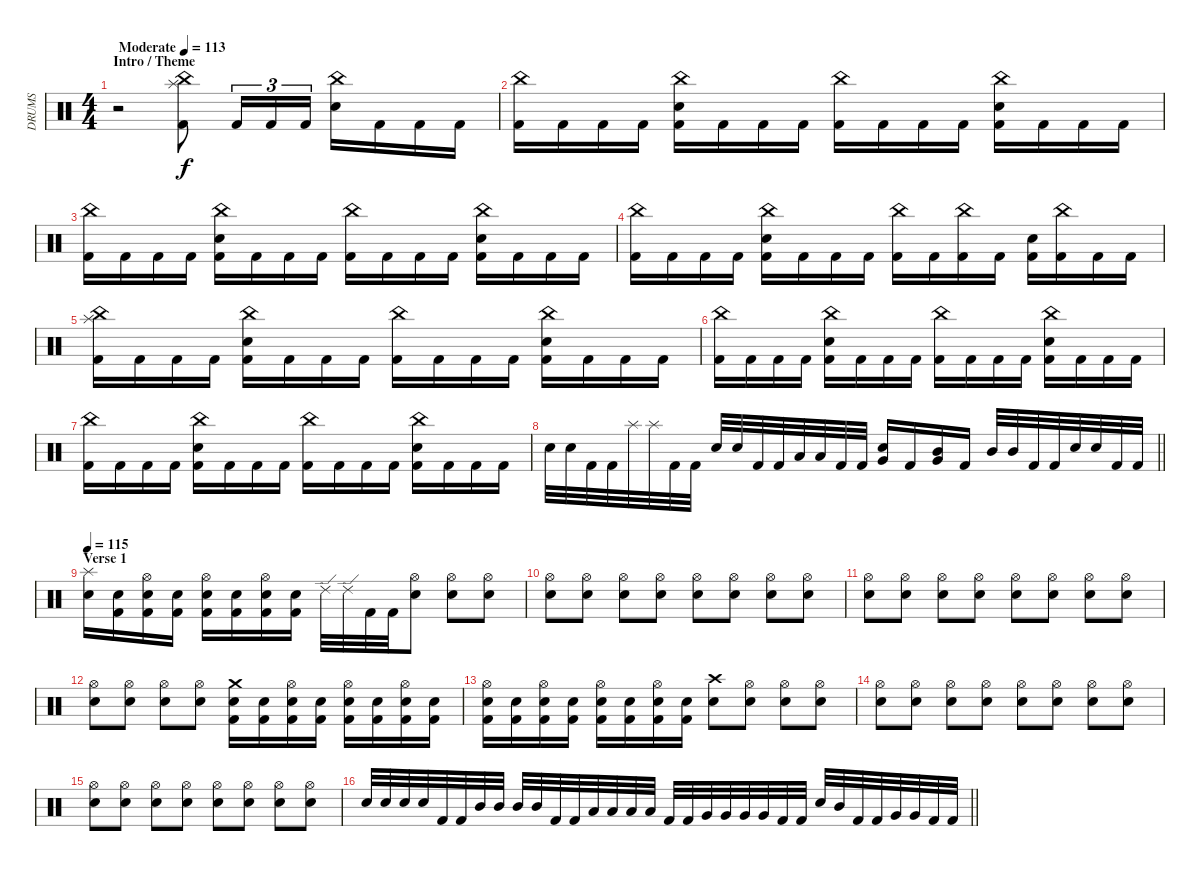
\track ("DRUMS" "DRUMS") {instrument percussion}
\staff {score}
\articulation defaults
\ts (4 4)
\section ("" "Intro / Theme")
\tempo (113 "Moderate")
\clef neutral
\ks c
r.2{dy f} ("China (hit)" "Splash (hit)" "Kick (hit) 2").8 "Kick (hit) 2".16{tu (3 2)} "Kick (hit) 2".16{tu (3 2)} "Kick (hit) 2".16{tu (3 2)} ("China (hit)" "Electric Snare (hit)").16 "Kick (hit) 2".16 "Kick (hit) 2".16 "Kick (hit) 2".16 |
("China (hit)" "Kick (hit) 2").16 "Kick (hit) 2".16 "Kick (hit) 2".16 "Kick (hit) 2".16 ("China (hit)" "Electric Snare (hit)" "Kick (hit) 2").16 "Kick (hit) 2".16 "Kick (hit) 2".16 "Kick (hit) 2".16 ("China (hit)" "Kick (hit) 2").16 "Kick (hit) 2".16 "Kick (hit) 2".16 "Kick (hit) 2".16 ("China (hit)" "Electric Snare (hit)" "Kick (hit) 2").16 "Kick (hit) 2".16 "Kick (hit) 2".16 "Kick (hit) 2".16 |
("China (hit)" "Kick (hit) 2").16 "Kick (hit) 2".16 "Kick (hit) 2".16 "Kick (hit) 2".16 ("China (hit)" "Electric Snare (hit)" "Kick (hit) 2").16 "Kick (hit) 2".16 "Kick (hit) 2".16 "Kick (hit) 2".16 ("China (hit)" "Kick (hit) 2").16 "Kick (hit) 2".16 "Kick (hit) 2".16 "Kick (hit) 2".16 ("China (hit)" "Electric Snare (hit)" "Kick (hit) 2").16 "Kick (hit) 2".16 "Kick (hit) 2".16 "Kick (hit) 2".16 |
("China (hit)" "Kick (hit) 2").16 "Kick (hit) 2".16 "Kick (hit) 2".16 "Kick (hit) 2".16 ("China (hit)" "Electric Snare (hit)" "Kick (hit) 2").16 "Kick (hit) 2".16 "Kick (hit) 2".16 "Kick (hit) 2".16 ("China (hit)" "Kick (hit) 2").16 "Kick (hit) 2".16 ("China (hit)" "Kick (hit) 2").16 "Kick (hit) 2".16 ("Electric Snare (hit)" "Kick (hit) 2").16 ("China (hit)" "Kick (hit) 2").16 "Kick (hit) 2".16 "Kick (hit) 2".16 |
("China (hit)" "Splash (hit)" "Kick (hit) 2").16 "Kick (hit) 2".16 "Kick (hit) 2".16 "Kick (hit) 2".16 ("China (hit)" "Electric Snare (hit)" "Kick (hit) 2").16 "Kick (hit) 2".16 "Kick (hit) 2".16 "Kick (hit) 2".16 ("China (hit)" "Kick (hit) 2").16 "Kick (hit) 2".16 "Kick (hit) 2".16 "Kick (hit) 2".16 ("China (hit)" "Electric Snare (hit)" "Kick (hit) 2").16 "Kick (hit) 2".16 "Kick (hit) 2".16 "Kick (hit) 2".16 |
("China (hit)" "Kick (hit) 2").16 "Kick (hit) 2".16 "Kick (hit) 2".16 "Kick (hit) 2".16 ("China (hit)" "Electric Snare (hit)" "Kick (hit) 2").16 "Kick (hit) 2".16 "Kick (hit) 2".16 "Kick (hit) 2".16 ("China (hit)" "Kick (hit) 2").16 "Kick (hit) 2".16 "Kick (hit) 2".16 "Kick (hit) 2".16 ("China (hit)" "Electric Snare (hit)" "Kick (hit) 2").16 "Kick (hit) 2".16 "Kick (hit) 2".16 "Kick (hit) 2".16 |
("China (hit)" "Kick (hit) 2").16 "Kick (hit) 2".16 "Kick (hit) 2".16 "Kick (hit) 2".16 ("China (hit)" "Electric Snare (hit)" "Kick (hit) 2").16 "Kick (hit) 2".16 "Kick (hit) 2".16 "Kick (hit) 2".16 ("China (hit)" "Kick (hit) 2").16 "Kick (hit) 2".16 "Kick (hit) 2".16 "Kick (hit) 2".16 ("China (hit)" "Electric Snare (hit)" "Kick (hit) 2").16 "Kick (hit) 2".16 "Kick (hit) 2".16 "Kick (hit) 2".16 |
\barLineRight lightlight "Electric Snare (hit)".32 "Electric Snare (hit)".32 "Kick (hit) 2".32 "Kick (hit) 2".32 "Splash (hit)".32 "Splash (hit)".32 "Kick (hit) 2".32 "Kick (hit) 2".32 "Electric Snare (hit)".32 "Electric Snare (hit)".32 "Kick (hit) 2".32 "Kick (hit) 2".32 "Low Tom (hit)".32 "Low Tom (hit)".32 "Kick (hit) 2".32 "Kick (hit) 2".32
("Electric Snare (hit)" "Very Low Tom (hit)").16 "Kick (hit) 2".16 ("Mid Tom (hit)" "Very Low Tom (hit)").16 "Kick (hit) 2".16 "Mid Tom (hit)".32 "Mid Tom (hit)".32 "Kick (hit) 2".32 "Kick (hit) 2".32 "Electric Snare (hit)".32 "Electric Snare (hit)".32 "Kick (hit) 2".32 "Kick (hit) 2".32 |
\section ("" "Verse 1")
\tempo 115
("Splash (hit)" "Electric Snare (hit)").16 ("Electric Snare (hit)" "Kick (hit) 2").16 ("Hi-Hat (open)" "Electric Snare (hit)" "Kick (hit) 2").16 ("Electric Snare (hit)" "Kick (hit) 2").16 ("Hi-Hat (open)" "Electric Snare (hit)" "Kick (hit) 2").16 ("Electric Snare (hit)" "Kick (hit) 2").16 ("Hi-Hat (open)" "Electric Snare (hit)" "Kick (hit) 2").16 ("Electric Snare (hit)" "Kick (hit) 2").16 "Ride (edge) 2".32 "Ride (edge) 2".32 "Kick (hit) 2".32 "Kick (hit) 2".32 ("Hi-Hat (open)" "Electric Snare (hit)").8 ("Hi-Hat (open)" "Electric Snare (hit)").8 ("Hi-Hat (open)" "Electric Snare (hit)").8 |
("Hi-Hat (open)" "Electric Snare (hit)").8 ("Hi-Hat (open)" "Electric Snare (hit)").8 ("Hi-Hat (open)" "Electric Snare (hit)").8 ("Hi-Hat (open)" "Electric Snare (hit)").8 ("Hi-Hat (open)" "Electric Snare (hit)").8 ("Hi-Hat (open)" "Electric Snare (hit)").8 ("Hi-Hat (open)" "Electric Snare (hit)").8 ("Hi-Hat (open)" "Electric Snare (hit)").8 |
("Hi-Hat (open)" "Electric Snare (hit)").8 ("Hi-Hat (open)" "Electric Snare (hit)").8 ("Hi-Hat (open)" "Electric Snare (hit)").8 ("Hi-Hat (open)" "Electric Snare (hit)").8 ("Hi-Hat (open)" "Electric Snare (hit)").8 ("Hi-Hat (open)" "Electric Snare (hit)").8 ("Hi-Hat (open)" "Electric Snare (hit)").8 ("Hi-Hat (open)" "Electric Snare (hit)").8 |
("Hi-Hat (open)" "Electric Snare (hit)").8 ("Hi-Hat (open)" "Electric Snare (hit)").8 ("Hi-Hat (open)" "Electric Snare (hit)").8 ("Hi-Hat (open)" "Electric Snare (hit)").8 ("Crash medium (hit)" "Electric Snare (hit)" "Kick (hit) 2").16 ("Electric Snare (hit)" "Kick (hit) 2").16 ("Hi-Hat (open)" "Electric Snare (hit)" "Kick (hit) 2").16 ("Electric Snare (hit)" "Kick (hit) 2").16 ("Hi-Hat (open)" "Electric Snare (hit)" "Kick (hit) 2").16 ("Electric Snare (hit)" "Kick (hit) 2").16 ("Hi-Hat (open)" "Electric Snare (hit)" "Kick (hit) 2").16 ("Electric Snare (hit)" "Kick (hit) 2").16 |
("Hi-Hat (open)" "Electric Snare (hit)" "Kick (hit) 2").16 ("Electric Snare (hit)" "Kick (hit) 2").16 ("Hi-Hat (open)" "Electric Snare (hit)" "Kick (hit) 2").16 ("Electric Snare (hit)" "Kick (hit) 2").16 ("Hi-Hat (open)" "Electric Snare (hit)" "Kick (hit) 2").16 ("Electric Snare (hit)" "Kick (hit) 2").16 ("Hi-Hat (open)" "Electric Snare (hit)" "Kick (hit) 2").16 ("Electric Snare (hit)" "Kick (hit) 2").16 ("Crash high (hit)" "Electric Snare (hit)").8 ("Hi-Hat (open)" "Electric Snare (hit)").8 ("Hi-Hat (open)" "Electric Snare (hit)").8 ("Hi-Hat (open)" "Electric Snare (hit)").8 |
("Hi-Hat (open)" "Electric Snare (hit)").8 ("Hi-Hat (open)" "Electric Snare (hit)").8 ("Hi-Hat (open)" "Electric Snare (hit)").8 ("Hi-Hat (open)" "Electric Snare (hit)").8 ("Hi-Hat (open)" "Electric Snare (hit)").8 ("Hi-Hat (open)" "Electric Snare (hit)").8 ("Hi-Hat (open)" "Electric Snare (hit)").8 ("Hi-Hat (open)" "Electric Snare (hit)").8 |
("Hi-Hat (open)" "Electric Snare (hit)").8 ("Hi-Hat (open)" "Electric Snare (hit)").8 ("Hi-Hat (open)" "Electric Snare (hit)").8 ("Hi-Hat (open)" "Electric Snare (hit)").8 ("Hi-Hat (open)" "Electric Snare (hit)").8 ("Hi-Hat (open)" "Electric Snare (hit)").8 ("Hi-Hat (open)" "Electric Snare (hit)").8 ("Hi-Hat (open)" "Electric Snare (hit)").8 |
\barLineRight lightlight "Electric Snare (hit)".32 "Electric Snare (hit)".32 "Electric Snare (hit)".32 "Electric Snare (hit)".32 "Kick (hit) 2".32 "Kick (hit) 2".32 "Mid Tom (hit)".32 "Mid Tom (hit)".32 "Mid Tom (hit)".32 "Mid Tom (hit)".32 "Kick (hit) 2".32 "Kick (hit) 2".32 "Low Tom (hit)".32 "Low Tom (hit)".32 "Low Tom (hit)".32 "Low Tom (hit)".32 "Kick (hit) 2".32 "Kick (hit) 2".32 "Very Low Tom (hit)".32 "Very Low Tom (hit)".32 "Very Low Tom (hit)".32 "Very Low Tom (hit)".32 "Kick (hit) 2".32 "Kick (hit) 2".32 "Electric Snare (hit)".32 "Mid Tom (hit)".32 "Kick (hit) 2".32 "Kick (hit) 2".32 "Very Low Tom (hit)".32 "Very Low Tom (hit)".32 "Kick (hit) 2".32 "Kick (hit) 2".32
